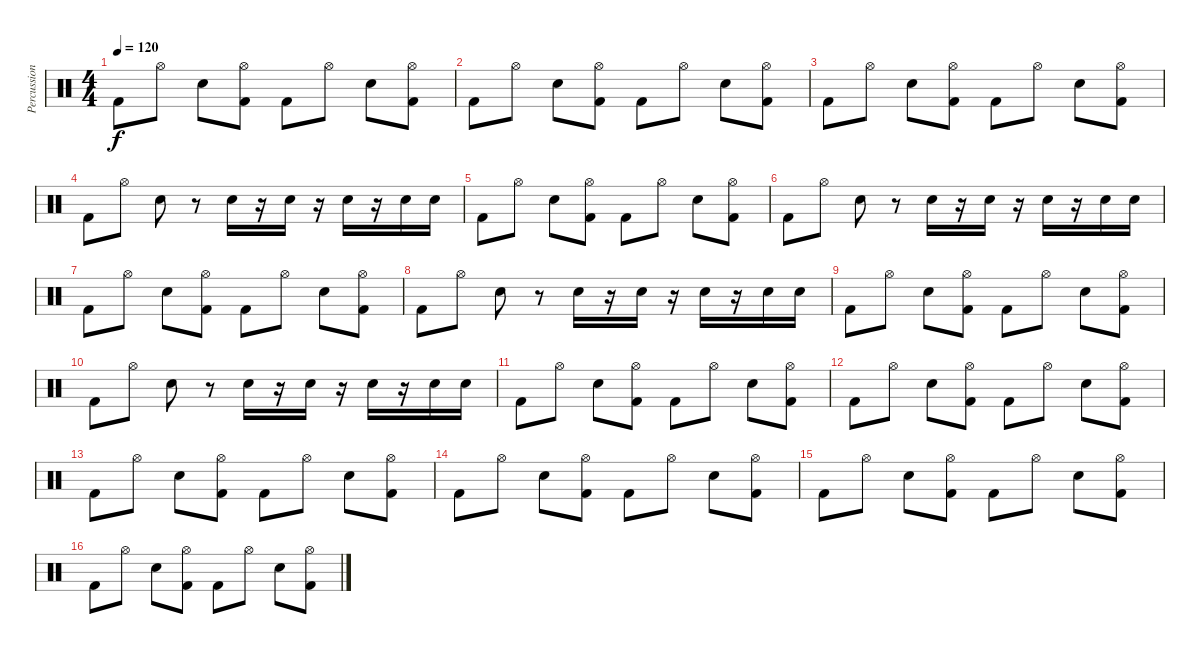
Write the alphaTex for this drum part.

\track ("Percussions" "Percussion") {instrument percussion}
\staff {score}
\articulation defaults
\ts (4 4)
\tempo 120
\clef neutral
\ks c "Kick (hit) 2".8{dy f} "Hi-Hat (open)".8 "Electric Snare (hit)".8
("Kick (hit) 2" "Hi-Hat (open)").8 "Kick (hit) 2".8 "Hi-Hat (open)".8 "Electric Snare (hit)".8 ("Hi-Hat (open)" "Kick (hit) 2").8 |
"Kick (hit) 2".8 "Hi-Hat (open)".8 "Electric Snare (hit)".8 ("Kick (hit) 2" "Hi-Hat (open)").8 "Kick (hit) 2".8 "Hi-Hat (open)".8 "Electric Snare (hit)".8 ("Hi-Hat (open)" "Kick (hit) 2").8 |
"Kick (hit) 2".8 "Hi-Hat (open)".8 "Electric Snare (hit)".8 ("Kick (hit) 2" "Hi-Hat (open)").8 "Kick (hit) 2".8 "Hi-Hat (open)".8 "Electric Snare (hit)".8 ("Hi-Hat (open)" "Kick (hit) 2").8 |
"Kick (hit) 2".8 "Hi-Hat (open)".8 "Electric Snare (hit)".8 r.8 "Electric Snare (hit)".16 r.16 "Electric Snare (hit)".16 r.16 "Electric Snare (hit)".16 r.16 "Electric Snare (hit)".16 "Electric Snare (hit)".16 |
"Kick (hit) 2".8 "Hi-Hat (open)".8 "Electric Snare (hit)".8 ("Kick (hit) 2" "Hi-Hat (open)").8 "Kick (hit) 2".8 "Hi-Hat (open)".8 "Electric Snare (hit)".8 ("Hi-Hat (open)" "Kick (hit) 2").8 |
"Kick (hit) 2".8 "Hi-Hat (open)".8 "Electric Snare (hit)".8 r.8 "Electric Snare (hit)".16 r.16 "Electric Snare (hit)".16 r.16 "Electric Snare (hit)".16 r.16 "Electric Snare (hit)".16 "Electric Snare (hit)".16 |
"Kick (hit) 2".8 "Hi-Hat (open)".8 "Electric Snare (hit)".8 ("Kick (hit) 2" "Hi-Hat (open)").8 "Kick (hit) 2".8 "Hi-Hat (open)".8 "Electric Snare (hit)".8 ("Hi-Hat (open)" "Kick (hit) 2").8 |
"Kick (hit) 2".8 "Hi-Hat (open)".8 "Electric Snare (hit)".8 r.8 "Electric Snare (hit)".16 r.16 "Electric Snare (hit)".16 r.16 "Electric Snare (hit)".16 r.16 "Electric Snare (hit)".16 "Electric Snare (hit)".16 |
"Kick (hit) 2".8 "Hi-Hat (open)".8 "Electric Snare (hit)".8 ("Kick (hit) 2" "Hi-Hat (open)").8 "Kick (hit) 2".8 "Hi-Hat (open)".8 "Electric Snare (hit)".8 ("Hi-Hat (open)" "Kick (hit) 2").8 |
"Kick (hit) 2".8 "Hi-Hat (open)".8 "Electric Snare (hit)".8 r.8 "Electric Snare (hit)".16 r.16 "Electric Snare (hit)".16 r.16 "Electric Snare (hit)".16 r.16 "Electric Snare (hit)".16 "Electric Snare (hit)".16 |
"Kick (hit) 2".8 "Hi-Hat (open)".8 "Electric Snare (hit)".8 ("Kick (hit) 2" "Hi-Hat (open)").8 "Kick (hit) 2".8 "Hi-Hat (open)".8 "Electric Snare (hit)".8 ("Hi-Hat (open)" "Kick (hit) 2").8 |
"Kick (hit) 2".8 "Hi-Hat (open)".8 "Electric Snare (hit)".8 ("Kick (hit) 2" "Hi-Hat (open)").8 "Kick (hit) 2".8 "Hi-Hat (open)".8 "Electric Snare (hit)".8 ("Hi-Hat (open)" "Kick (hit) 2").8 |
"Kick (hit) 2".8 "Hi-Hat (open)".8 "Electric Snare (hit)".8 ("Kick (hit) 2" "Hi-Hat (open)").8 "Kick (hit) 2".8 "Hi-Hat (open)".8 "Electric Snare (hit)".8 ("Hi-Hat (open)" "Kick (hit) 2").8 |
"Kick (hit) 2".8 "Hi-Hat (open)".8 "Electric Snare (hit)".8 ("Kick (hit) 2" "Hi-Hat (open)").8 "Kick (hit) 2".8 "Hi-Hat (open)".8 "Electric Snare (hit)".8 ("Hi-Hat (open)" "Kick (hit) 2").8 |
"Kick (hit) 2".8 "Hi-Hat (open)".8 "Electric Snare (hit)".8 ("Kick (hit) 2" "Hi-Hat (open)").8 "Kick (hit) 2".8 "Hi-Hat (open)".8 "Electric Snare (hit)".8 ("Hi-Hat (open)" "Kick (hit) 2").8 |
"Kick (hit) 2".8 "Hi-Hat (open)".8 "Electric Snare (hit)".8 ("Kick (hit) 2" "Hi-Hat (open)").8 "Kick (hit) 2".8 "Hi-Hat (open)".8 "Electric Snare (hit)".8 ("Hi-Hat (open)" "Kick (hit) 2").8
